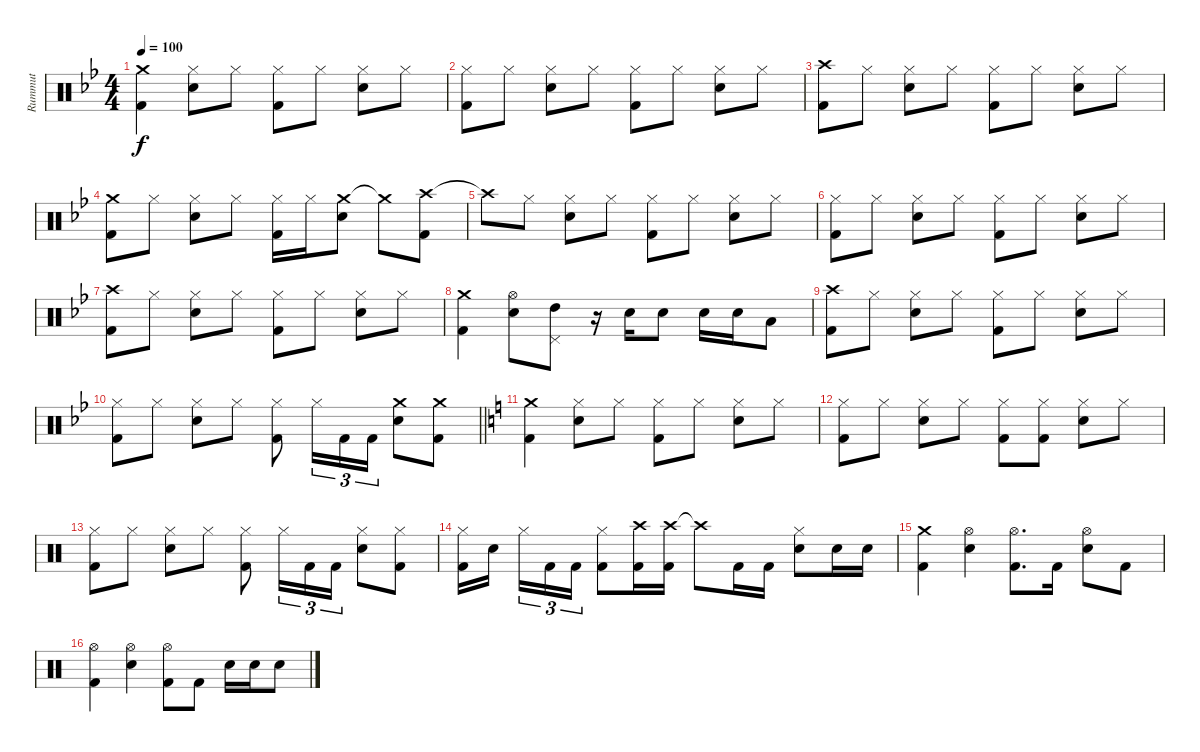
\track ("Rummut" "Rummut") {instrument percussion}
\staff {score}
\articulation defaults
\ts (4 4)
\tempo 100
\clef neutral
\ks gminor
("Crash medium (hit)" "Kick (hit) 2").4{dy f} ("Hi-Hat (closed)" "Snare (hit) 2").8 "Hi-Hat (closed)".8 ("Hi-Hat (closed)" "Kick (hit) 2").8 "Hi-Hat (closed)".8 ("Hi-Hat (closed)" "Snare (hit) 2").8 "Hi-Hat (closed)".8 |
("Hi-Hat (closed)" "Kick (hit) 2").8 "Hi-Hat (closed)".8 ("Hi-Hat (closed)" "Snare (hit) 2").8 "Hi-Hat (closed)".8 ("Hi-Hat (closed)" "Kick (hit) 2").8 "Hi-Hat (closed)".8 ("Hi-Hat (closed)" "Snare (hit) 2").8 "Hi-Hat (closed)".8 |
("Crash high (hit)" "Kick (hit) 2").8 "Hi-Hat (closed)".8 ("Hi-Hat (closed)" "Snare (hit) 2").8 "Hi-Hat (closed)".8 ("Hi-Hat (closed)" "Kick (hit) 2").8 "Hi-Hat (closed)".8 ("Hi-Hat (closed)" "Snare (hit) 2").8 "Hi-Hat (closed)".8 |
("Crash medium (hit)" "Kick (hit) 2").8 "Hi-Hat (closed)".8 ("Hi-Hat (closed)" "Snare (hit) 2").8 "Hi-Hat (closed)".8 ("Hi-Hat (closed)" "Kick (hit) 2").16 "Hi-Hat (closed)".16 ("Crash medium (hit)" "Snare (hit) 2").8 "Crash medium (hit)"{t}.8 ("Crash high (hit)" "Kick (hit) 2").8 |
"Crash high (hit)"{t}.8 "Hi-Hat (closed)".8 ("Hi-Hat (closed)" "Snare (hit) 2").8 "Hi-Hat (closed)".8 ("Hi-Hat (closed)" "Kick (hit) 2").8 "Hi-Hat (closed)".8 ("Hi-Hat (closed)" "Snare (hit) 2").8 "Hi-Hat (closed)".8 |
("Hi-Hat (closed)" "Kick (hit) 2").8 "Hi-Hat (closed)".8 ("Hi-Hat (closed)" "Snare (hit) 2").8 "Hi-Hat (closed)".8 ("Hi-Hat (closed)" "Kick (hit) 2").8 "Hi-Hat (closed)".8 ("Hi-Hat (closed)" "Snare (hit) 2").8 "Hi-Hat (closed)".8 |
("Crash high (hit)" "Kick (hit) 2").8 "Hi-Hat (closed)".8 ("Hi-Hat (closed)" "Snare (hit) 2").8 "Hi-Hat (closed)".8 ("Hi-Hat (closed)" "Kick (hit) 2").8 "Hi-Hat (closed)".8 ("Hi-Hat (closed)" "Snare (hit) 2").8 "Hi-Hat (closed)".8 |
("Crash medium (hit)" "Kick (hit) 2").4 ("Hi-Hat (open)" "Snare (hit) 2").8 ("Pedal Hi-Hat (hit)" "High Tom (hit)").8 r.16 "Snare (hit) 2".16 "Snare (hit) 2".8 "Snare (hit) 2".16 "Snare (hit) 2".16 "Low Tom (hit)".8 |
("Crash high (hit)" "Kick (hit) 2").8 "Hi-Hat (closed)".8 ("Hi-Hat (closed)" "Snare (hit) 2").8 "Hi-Hat (closed)".8 ("Hi-Hat (closed)" "Kick (hit) 2").8 "Hi-Hat (closed)".8 ("Hi-Hat (closed)" "Snare (hit) 2").8 "Hi-Hat (closed)".8 |
\barLineRight lightlight
("Hi-Hat (closed)" "Kick (hit) 2").8 "Hi-Hat (closed)".8 ("Hi-Hat (closed)" "Snare (hit) 2").8 "Hi-Hat (closed)".8 ("Hi-Hat (closed)" "Kick (hit) 2").8 "Hi-Hat (closed)".16{tu (3 2)} "Kick (hit) 2".16{tu (3 2)} "Kick (hit) 2".16{tu (3 2)} ("Crash medium (hit)" "Snare (hit) 2").8 ("Crash medium (hit)" "Kick (hit) 2").8 |
\ks aminor
("Crash medium (hit)" "Kick (hit) 2").4 ("Hi-Hat (closed)" "Snare (hit) 2").8 "Hi-Hat (closed)".8 ("Hi-Hat (closed)" "Kick (hit) 2").8 "Hi-Hat (closed)".8 ("Hi-Hat (closed)" "Snare (hit) 2").8 "Hi-Hat (closed)".8 |
("Hi-Hat (closed)" "Kick (hit) 2").8 "Hi-Hat (closed)".8 ("Hi-Hat (closed)" "Snare (hit) 2").8 "Hi-Hat (closed)".8 ("Hi-Hat (closed)" "Kick (hit) 2").8 ("Hi-Hat (closed)" "Kick (hit) 2").8 ("Hi-Hat (closed)" "Snare (hit) 2").8 "Hi-Hat (closed)".8 |
("Hi-Hat (closed)" "Kick (hit) 2").8 "Hi-Hat (closed)".8 ("Hi-Hat (closed)" "Snare (hit) 2").8 "Hi-Hat (closed)".8 ("Hi-Hat (closed)" "Kick (hit) 2").8 "Hi-Hat (closed)".16{tu (3 2)} "Kick (hit) 2".16{tu (3 2)} "Kick (hit) 2".16{tu (3 2)} ("Hi-Hat (closed)" "Snare (hit) 2").8 ("Hi-Hat (closed)" "Kick (hit) 2").8 |
("Hi-Hat (closed)" "Kick (hit) 2").16 "Snare (hit) 2".16{beam splitsecondary} "Hi-Hat (closed)".16{tu (3 2)} "Kick (hit) 2".16{tu (3 2)} "Kick (hit) 2".16{tu (3 2)} ("Hi-Hat (closed)" "Kick (hit) 2").8 ("Crash high (hit)" "Kick (hit) 2").16 ("Crash high (hit)" "Kick (hit) 2").16 "Crash high (hit)"{t}.8 "Kick (hit) 2".16 "Kick (hit) 2".16 ("Hi-Hat (closed)" "Snare (hit) 2").8 "Snare (hit) 2".16 "Snare (hit) 2".16 |
("Crash medium (hit)" "Kick (hit) 2").4 ("Hi-Hat (open)" "Snare (hit) 2").4 ("Hi-Hat (open)" "Kick (hit) 2").8{d} "Kick (hit) 2".16 ("Hi-Hat (open)" "Snare (hit) 2").8 "Kick (hit) 2".8 |
("Hi-Hat (open)" "Kick (hit) 2").4 ("Hi-Hat (open)" "Snare (hit) 2").4 ("Hi-Hat (open)" "Kick (hit) 2").8 "Kick (hit) 2".8 "Snare (hit) 2".16 "Snare (hit) 2".16 "Snare (hit) 2".8
